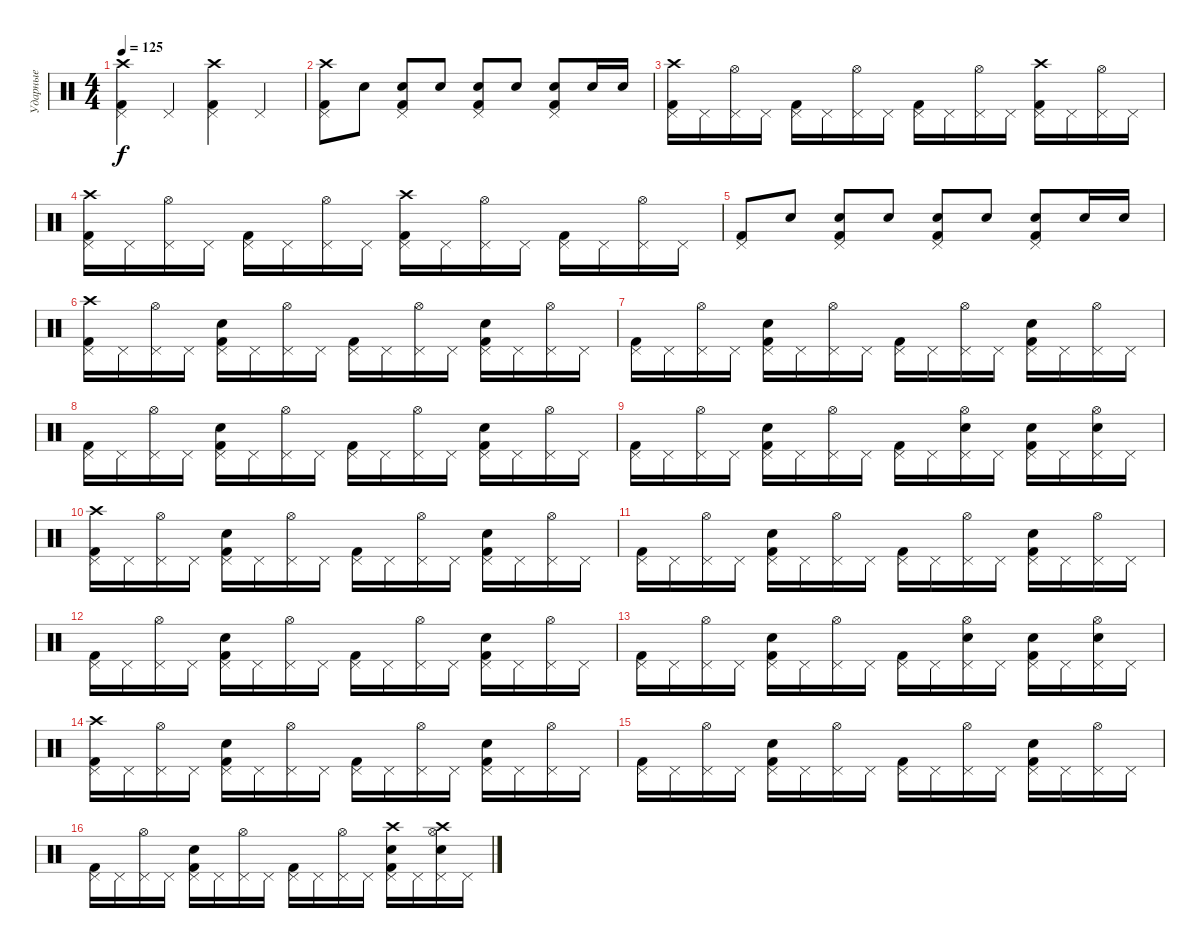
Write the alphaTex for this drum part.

\track ("Ударные" "Ударные") {instrument percussion}
\staff {score}
\articulation defaults
\ts (4 4)
\tempo 125
\clef neutral
\ks c
("Kick (hit) 2" "Pedal Hi-Hat (hit)" "Crash high (hit)").4{dy f} "Pedal Hi-Hat (hit)".4 ("Kick (hit) 2" "Pedal Hi-Hat (hit)" "Crash high (hit)").4 "Pedal Hi-Hat (hit)".4 |
("Kick (hit) 2" "Pedal Hi-Hat (hit)" "Crash high (hit)").8 "Snare (hit) 2".8 ("Kick (hit) 2" "Pedal Hi-Hat (hit)" "Snare (hit) 2").8 "Snare (hit) 2".8 ("Kick (hit) 2" "Pedal Hi-Hat (hit)" "Snare (hit) 2").8 "Snare (hit) 2".8 ("Kick (hit) 2" "Pedal Hi-Hat (hit)" "Snare (hit) 2").8 "Snare (hit) 2".16 "Snare (hit) 2".16 |
("Kick (hit) 2" "Pedal Hi-Hat (hit)" "Crash high (hit)").16 "Pedal Hi-Hat (hit)".16 ("Pedal Hi-Hat (hit)" "Hi-Hat (open)").16 "Pedal Hi-Hat (hit)".16 ("Kick (hit) 2" "Pedal Hi-Hat (hit)").16 "Pedal Hi-Hat (hit)".16 ("Pedal Hi-Hat (hit)" "Hi-Hat (open)").16 "Pedal Hi-Hat (hit)".16 ("Kick (hit) 2" "Pedal Hi-Hat (hit)").16 "Pedal Hi-Hat (hit)".16 ("Pedal Hi-Hat (hit)" "Hi-Hat (open)").16 "Pedal Hi-Hat (hit)".16 ("Kick (hit) 2" "Pedal Hi-Hat (hit)" "Crash high (hit)").16 "Pedal Hi-Hat (hit)".16 ("Pedal Hi-Hat (hit)" "Hi-Hat (open)").16 "Pedal Hi-Hat (hit)".16 |
("Kick (hit) 2" "Pedal Hi-Hat (hit)" "Crash high (hit)").16 "Pedal Hi-Hat (hit)".16 ("Pedal Hi-Hat (hit)" "Hi-Hat (open)").16 "Pedal Hi-Hat (hit)".16 ("Kick (hit) 2" "Pedal Hi-Hat (hit)").16 "Pedal Hi-Hat (hit)".16 ("Pedal Hi-Hat (hit)" "Hi-Hat (open)").16 "Pedal Hi-Hat (hit)".16 ("Kick (hit) 2" "Pedal Hi-Hat (hit)" "Crash high (hit)").16 "Pedal Hi-Hat (hit)".16 ("Pedal Hi-Hat (hit)" "Hi-Hat (open)").16 "Pedal Hi-Hat (hit)".16 ("Kick (hit) 2" "Pedal Hi-Hat (hit)").16 "Pedal Hi-Hat (hit)".16 ("Pedal Hi-Hat (hit)" "Hi-Hat (open)").16 "Pedal Hi-Hat (hit)".16 |
("Kick (hit) 2" "Pedal Hi-Hat (hit)").8 "Snare (hit) 2".8 ("Kick (hit) 2" "Pedal Hi-Hat (hit)" "Snare (hit) 2").8 "Snare (hit) 2".8 ("Kick (hit) 2" "Pedal Hi-Hat (hit)" "Snare (hit) 2").8 "Snare (hit) 2".8 ("Kick (hit) 2" "Pedal Hi-Hat (hit)" "Snare (hit) 2").8 "Snare (hit) 2".16 "Snare (hit) 2".16 |
("Kick (hit) 2" "Pedal Hi-Hat (hit)" "Crash high (hit)").16 "Pedal Hi-Hat (hit)".16 ("Pedal Hi-Hat (hit)" "Hi-Hat (open)").16 "Pedal Hi-Hat (hit)".16 ("Kick (hit) 2" "Pedal Hi-Hat (hit)" "Snare (hit) 2").16 "Pedal Hi-Hat (hit)".16 ("Pedal Hi-Hat (hit)" "Hi-Hat (open)").16 "Pedal Hi-Hat (hit)".16 ("Kick (hit) 2" "Pedal Hi-Hat (hit)").16 "Pedal Hi-Hat (hit)".16 ("Pedal Hi-Hat (hit)" "Hi-Hat (open)").16 "Pedal Hi-Hat (hit)".16 ("Kick (hit) 2" "Pedal Hi-Hat (hit)" "Snare (hit) 2").16 "Pedal Hi-Hat (hit)".16 ("Pedal Hi-Hat (hit)" "Hi-Hat (open)").16 "Pedal Hi-Hat (hit)".16 |
("Kick (hit) 2" "Pedal Hi-Hat (hit)").16 "Pedal Hi-Hat (hit)".16 ("Pedal Hi-Hat (hit)" "Hi-Hat (open)").16 "Pedal Hi-Hat (hit)".16 ("Kick (hit) 2" "Pedal Hi-Hat (hit)" "Snare (hit) 2").16 "Pedal Hi-Hat (hit)".16 ("Pedal Hi-Hat (hit)" "Hi-Hat (open)").16 "Pedal Hi-Hat (hit)".16 ("Kick (hit) 2" "Pedal Hi-Hat (hit)").16 "Pedal Hi-Hat (hit)".16 ("Pedal Hi-Hat (hit)" "Hi-Hat (open)").16 "Pedal Hi-Hat (hit)".16 ("Kick (hit) 2" "Pedal Hi-Hat (hit)" "Snare (hit) 2").16 "Pedal Hi-Hat (hit)".16 ("Pedal Hi-Hat (hit)" "Hi-Hat (open)").16 "Pedal Hi-Hat (hit)".16 |
("Kick (hit) 2" "Pedal Hi-Hat (hit)").16 "Pedal Hi-Hat (hit)".16 ("Pedal Hi-Hat (hit)" "Hi-Hat (open)").16 "Pedal Hi-Hat (hit)".16 ("Kick (hit) 2" "Pedal Hi-Hat (hit)" "Snare (hit) 2").16 "Pedal Hi-Hat (hit)".16 ("Pedal Hi-Hat (hit)" "Hi-Hat (open)").16 "Pedal Hi-Hat (hit)".16 ("Kick (hit) 2" "Pedal Hi-Hat (hit)").16 "Pedal Hi-Hat (hit)".16 ("Pedal Hi-Hat (hit)" "Hi-Hat (open)").16 "Pedal Hi-Hat (hit)".16 ("Kick (hit) 2" "Pedal Hi-Hat (hit)" "Snare (hit) 2").16 "Pedal Hi-Hat (hit)".16 ("Pedal Hi-Hat (hit)" "Hi-Hat (open)").16 "Pedal Hi-Hat (hit)".16 |
("Kick (hit) 2" "Pedal Hi-Hat (hit)").16 "Pedal Hi-Hat (hit)".16 ("Pedal Hi-Hat (hit)" "Hi-Hat (open)").16 "Pedal Hi-Hat (hit)".16 ("Kick (hit) 2" "Pedal Hi-Hat (hit)" "Snare (hit) 2").16 "Pedal Hi-Hat (hit)".16 ("Pedal Hi-Hat (hit)" "Hi-Hat (open)").16 "Pedal Hi-Hat (hit)".16 ("Kick (hit) 2" "Pedal Hi-Hat (hit)").16 "Pedal Hi-Hat (hit)".16 ("Pedal Hi-Hat (hit)" "Snare (hit) 2" "Hi-Hat (open)").16 "Pedal Hi-Hat (hit)".16 ("Kick (hit) 2" "Pedal Hi-Hat (hit)" "Snare (hit) 2").16 "Pedal Hi-Hat (hit)".16 ("Pedal Hi-Hat (hit)" "Snare (hit) 2" "Hi-Hat (open)").16 "Pedal Hi-Hat (hit)".16 |
("Kick (hit) 2" "Pedal Hi-Hat (hit)" "Crash high (hit)").16 "Pedal Hi-Hat (hit)".16 ("Pedal Hi-Hat (hit)" "Hi-Hat (open)").16 "Pedal Hi-Hat (hit)".16 ("Kick (hit) 2" "Pedal Hi-Hat (hit)" "Snare (hit) 2").16 "Pedal Hi-Hat (hit)".16 ("Pedal Hi-Hat (hit)" "Hi-Hat (open)").16 "Pedal Hi-Hat (hit)".16 ("Kick (hit) 2" "Pedal Hi-Hat (hit)").16 "Pedal Hi-Hat (hit)".16 ("Pedal Hi-Hat (hit)" "Hi-Hat (open)").16 "Pedal Hi-Hat (hit)".16 ("Kick (hit) 2" "Pedal Hi-Hat (hit)" "Snare (hit) 2").16 "Pedal Hi-Hat (hit)".16 ("Pedal Hi-Hat (hit)" "Hi-Hat (open)").16 "Pedal Hi-Hat (hit)".16 |
("Kick (hit) 2" "Pedal Hi-Hat (hit)").16 "Pedal Hi-Hat (hit)".16 ("Pedal Hi-Hat (hit)" "Hi-Hat (open)").16 "Pedal Hi-Hat (hit)".16 ("Kick (hit) 2" "Pedal Hi-Hat (hit)" "Snare (hit) 2").16 "Pedal Hi-Hat (hit)".16 ("Pedal Hi-Hat (hit)" "Hi-Hat (open)").16 "Pedal Hi-Hat (hit)".16 ("Kick (hit) 2" "Pedal Hi-Hat (hit)").16 "Pedal Hi-Hat (hit)".16 ("Pedal Hi-Hat (hit)" "Hi-Hat (open)").16 "Pedal Hi-Hat (hit)".16 ("Kick (hit) 2" "Pedal Hi-Hat (hit)" "Snare (hit) 2").16 "Pedal Hi-Hat (hit)".16 ("Pedal Hi-Hat (hit)" "Hi-Hat (open)").16 "Pedal Hi-Hat (hit)".16 |
("Kick (hit) 2" "Pedal Hi-Hat (hit)").16 "Pedal Hi-Hat (hit)".16 ("Pedal Hi-Hat (hit)" "Hi-Hat (open)").16 "Pedal Hi-Hat (hit)".16 ("Kick (hit) 2" "Pedal Hi-Hat (hit)" "Snare (hit) 2").16 "Pedal Hi-Hat (hit)".16 ("Pedal Hi-Hat (hit)" "Hi-Hat (open)").16 "Pedal Hi-Hat (hit)".16 ("Kick (hit) 2" "Pedal Hi-Hat (hit)").16 "Pedal Hi-Hat (hit)".16 ("Pedal Hi-Hat (hit)" "Hi-Hat (open)").16 "Pedal Hi-Hat (hit)".16 ("Kick (hit) 2" "Pedal Hi-Hat (hit)" "Snare (hit) 2").16 "Pedal Hi-Hat (hit)".16 ("Pedal Hi-Hat (hit)" "Hi-Hat (open)").16 "Pedal Hi-Hat (hit)".16 |
("Kick (hit) 2" "Pedal Hi-Hat (hit)").16 "Pedal Hi-Hat (hit)".16 ("Pedal Hi-Hat (hit)" "Hi-Hat (open)").16 "Pedal Hi-Hat (hit)".16 ("Kick (hit) 2" "Pedal Hi-Hat (hit)" "Snare (hit) 2").16 "Pedal Hi-Hat (hit)".16 ("Pedal Hi-Hat (hit)" "Hi-Hat (open)").16 "Pedal Hi-Hat (hit)".16 ("Kick (hit) 2" "Pedal Hi-Hat (hit)").16 "Pedal Hi-Hat (hit)".16 ("Pedal Hi-Hat (hit)" "Snare (hit) 2" "Hi-Hat (open)").16 "Pedal Hi-Hat (hit)".16 ("Kick (hit) 2" "Pedal Hi-Hat (hit)" "Snare (hit) 2").16 "Pedal Hi-Hat (hit)".16 ("Pedal Hi-Hat (hit)" "Snare (hit) 2" "Hi-Hat (open)").16 "Pedal Hi-Hat (hit)".16 |
("Kick (hit) 2" "Pedal Hi-Hat (hit)" "Crash high (hit)").16 "Pedal Hi-Hat (hit)".16 ("Pedal Hi-Hat (hit)" "Hi-Hat (open)").16 "Pedal Hi-Hat (hit)".16 ("Kick (hit) 2" "Pedal Hi-Hat (hit)" "Snare (hit) 2").16 "Pedal Hi-Hat (hit)".16 ("Pedal Hi-Hat (hit)" "Hi-Hat (open)").16 "Pedal Hi-Hat (hit)".16 ("Kick (hit) 2" "Pedal Hi-Hat (hit)").16 "Pedal Hi-Hat (hit)".16 ("Pedal Hi-Hat (hit)" "Hi-Hat (open)").16 "Pedal Hi-Hat (hit)".16 ("Kick (hit) 2" "Pedal Hi-Hat (hit)" "Snare (hit) 2").16 "Pedal Hi-Hat (hit)".16 ("Pedal Hi-Hat (hit)" "Hi-Hat (open)").16 "Pedal Hi-Hat (hit)".16 |
("Kick (hit) 2" "Pedal Hi-Hat (hit)").16 "Pedal Hi-Hat (hit)".16 ("Pedal Hi-Hat (hit)" "Hi-Hat (open)").16 "Pedal Hi-Hat (hit)".16 ("Kick (hit) 2" "Pedal Hi-Hat (hit)" "Snare (hit) 2").16 "Pedal Hi-Hat (hit)".16 ("Pedal Hi-Hat (hit)" "Hi-Hat (open)").16 "Pedal Hi-Hat (hit)".16 ("Kick (hit) 2" "Pedal Hi-Hat (hit)").16 "Pedal Hi-Hat (hit)".16 ("Pedal Hi-Hat (hit)" "Hi-Hat (open)").16 "Pedal Hi-Hat (hit)".16 ("Kick (hit) 2" "Pedal Hi-Hat (hit)" "Snare (hit) 2").16 "Pedal Hi-Hat (hit)".16 ("Pedal Hi-Hat (hit)" "Hi-Hat (open)").16 "Pedal Hi-Hat (hit)".16 |
("Kick (hit) 2" "Pedal Hi-Hat (hit)").16 "Pedal Hi-Hat (hit)".16 ("Pedal Hi-Hat (hit)" "Hi-Hat (open)").16 "Pedal Hi-Hat (hit)".16 ("Kick (hit) 2" "Pedal Hi-Hat (hit)" "Snare (hit) 2").16 "Pedal Hi-Hat (hit)".16 ("Pedal Hi-Hat (hit)" "Hi-Hat (open)").16 "Pedal Hi-Hat (hit)".16 ("Kick (hit) 2" "Pedal Hi-Hat (hit)").16 "Pedal Hi-Hat (hit)".16 ("Pedal Hi-Hat (hit)" "Hi-Hat (open)").16 "Pedal Hi-Hat (hit)".16 ("Kick (hit) 2" "Pedal Hi-Hat (hit)" "Snare (hit) 2" "Crash high (hit)").16 "Pedal Hi-Hat (hit)".16 ("Pedal Hi-Hat (hit)" "Snare (hit) 2" "Hi-Hat (open)" "Crash high (hit)").16 "Pedal Hi-Hat (hit)".16
